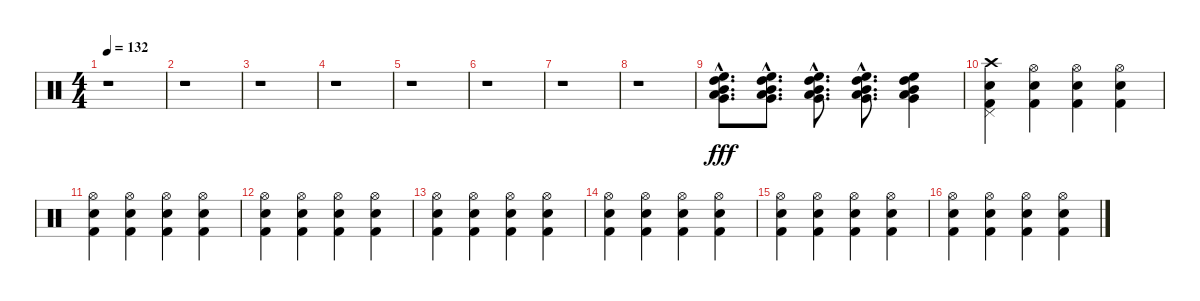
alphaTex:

\track "" {instrument percussion}
\staff {score}
\articulation defaults
\ts (4 4)
\tempo 132
\clef neutral
\ks c
r.1{dy fff} |
r.1 |
r.1 |
r.1 |
r.1 |
r.1 |
r.1 |
r.1 |
("High Floor Tom (hit)"{hac} "High Tom (hit)"{hac} "Mid Tom (hit)"{hac} "Low Tom (hit)"{hac} "Very Low Tom (hit)"{hac}).8{d} ("High Floor Tom (hit)"{hac} "High Tom (hit)"{hac} "Mid Tom (hit)"{hac} "Low Tom (hit)"{hac} "Very Low Tom (hit)"{hac}).8{d} ("High Floor Tom (hit)"{hac} "High Tom (hit)"{hac} "Mid Tom (hit)"{hac} "Low Tom (hit)"{hac} "Very Low Tom (hit)"{hac}).8{d} ("High Floor Tom (hit)"{hac} "High Tom (hit)"{hac} "Mid Tom (hit)"{hac} "Low Tom (hit)"{hac} "Very Low Tom (hit)"{hac}).8{d} ("High Floor Tom (hit)" "High Tom (hit)" "Mid Tom (hit)" "Low Tom (hit)" "Very Low Tom (hit)").4 |
("Crash high (hit)" "Pedal Hi-Hat (hit)" "Snare (hit) 2" "Kick (hit) 2").4 ("Hi-Hat (open)" "Snare (hit) 2" "Kick (hit) 2").4 ("Hi-Hat (open)" "Snare (hit) 2" "Kick (hit) 2").4 ("Hi-Hat (open)" "Snare (hit) 2" "Kick (hit) 2").4 |
("Hi-Hat (open)" "Snare (hit) 2" "Kick (hit) 2").4 ("Hi-Hat (open)" "Snare (hit) 2" "Kick (hit) 2").4 ("Hi-Hat (open)" "Snare (hit) 2" "Kick (hit) 2").4 ("Hi-Hat (open)" "Snare (hit) 2" "Kick (hit) 2").4 |
("Hi-Hat (open)" "Snare (hit) 2" "Kick (hit) 2").4 ("Hi-Hat (open)" "Snare (hit) 2" "Kick (hit) 2").4 ("Hi-Hat (open)" "Snare (hit) 2" "Kick (hit) 2").4 ("Hi-Hat (open)" "Snare (hit) 2" "Kick (hit) 2").4 |
("Hi-Hat (open)" "Snare (hit) 2" "Kick (hit) 2").4 ("Hi-Hat (open)" "Snare (hit) 2" "Kick (hit) 2").4 ("Hi-Hat (open)" "Snare (hit) 2" "Kick (hit) 2").4 ("Hi-Hat (open)" "Snare (hit) 2" "Kick (hit) 2").4 |
("Hi-Hat (open)" "Snare (hit) 2" "Kick (hit) 2").4 ("Hi-Hat (open)" "Snare (hit) 2" "Kick (hit) 2").4 ("Hi-Hat (open)" "Snare (hit) 2" "Kick (hit) 2").4 ("Hi-Hat (open)" "Snare (hit) 2" "Kick (hit) 2").4 |
("Hi-Hat (open)" "Snare (hit) 2" "Kick (hit) 2").4 ("Hi-Hat (open)" "Snare (hit) 2" "Kick (hit) 2").4 ("Hi-Hat (open)" "Snare (hit) 2" "Kick (hit) 2").4 ("Hi-Hat (open)" "Snare (hit) 2" "Kick (hit) 2").4 |
("Hi-Hat (open)" "Snare (hit) 2" "Kick (hit) 2").4 ("Hi-Hat (open)" "Snare (hit) 2" "Kick (hit) 2").4 ("Hi-Hat (open)" "Snare (hit) 2" "Kick (hit) 2").4 ("Hi-Hat (open)" "Snare (hit) 2" "Kick (hit) 2").4
